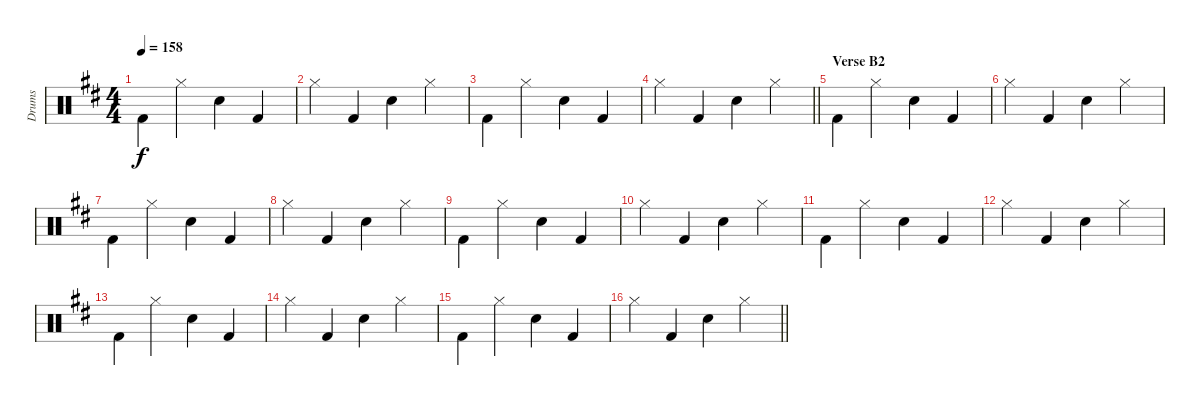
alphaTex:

\track ("Drums" "Drums") {instrument percussion}
\staff {score}
\articulation defaults
\ts (4 4)
\tempo 158
\clef neutral
\ks d "Kick (hit) 2".4{dy f beam merge} "Hi-Hat (closed)".4 "Snare (hit) 2".4 "Kick (hit) 2".4
|
"Hi-Hat (closed)".4 "Kick (hit) 2".4 "Snare (hit) 2".4 "Hi-Hat (closed)".4 |
"Kick (hit) 2".4{beam merge} "Hi-Hat (closed)".4 "Snare (hit) 2".4 "Kick (hit) 2".4 |
\barLineRight lightlight "Hi-Hat (closed)".4 "Kick (hit) 2".4 "Snare (hit) 2".4 "Hi-Hat (closed)".4
|
\section ("" "Verse B2")
"Kick (hit) 2".4{beam merge} "Hi-Hat (closed)".4 "Snare (hit) 2".4 "Kick (hit) 2".4 |
"Hi-Hat (closed)".4 "Kick (hit) 2".4 "Snare (hit) 2".4 "Hi-Hat (closed)".4 |
"Kick (hit) 2".4{beam merge} "Hi-Hat (closed)".4 "Snare (hit) 2".4 "Kick (hit) 2".4 |
"Hi-Hat (closed)".4 "Kick (hit) 2".4 "Snare (hit) 2".4 "Hi-Hat (closed)".4 |
"Kick (hit) 2".4{beam merge} "Hi-Hat (closed)".4 "Snare (hit) 2".4 "Kick (hit) 2".4 |
"Hi-Hat (closed)".4 "Kick (hit) 2".4 "Snare (hit) 2".4 "Hi-Hat (closed)".4 |
"Kick (hit) 2".4{beam merge} "Hi-Hat (closed)".4 "Snare (hit) 2".4 "Kick (hit) 2".4 |
"Hi-Hat (closed)".4 "Kick (hit) 2".4 "Snare (hit) 2".4 "Hi-Hat (closed)".4 |
"Kick (hit) 2".4{beam merge} "Hi-Hat (closed)".4 "Snare (hit) 2".4 "Kick (hit) 2".4 |
"Hi-Hat (closed)".4 "Kick (hit) 2".4 "Snare (hit) 2".4 "Hi-Hat (closed)".4 |
"Kick (hit) 2".4{beam merge} "Hi-Hat (closed)".4 "Snare (hit) 2".4 "Kick (hit) 2".4 |
\barLineRight lightlight "Hi-Hat (closed)".4 "Kick (hit) 2".4 "Snare (hit) 2".4 "Hi-Hat (closed)".4
